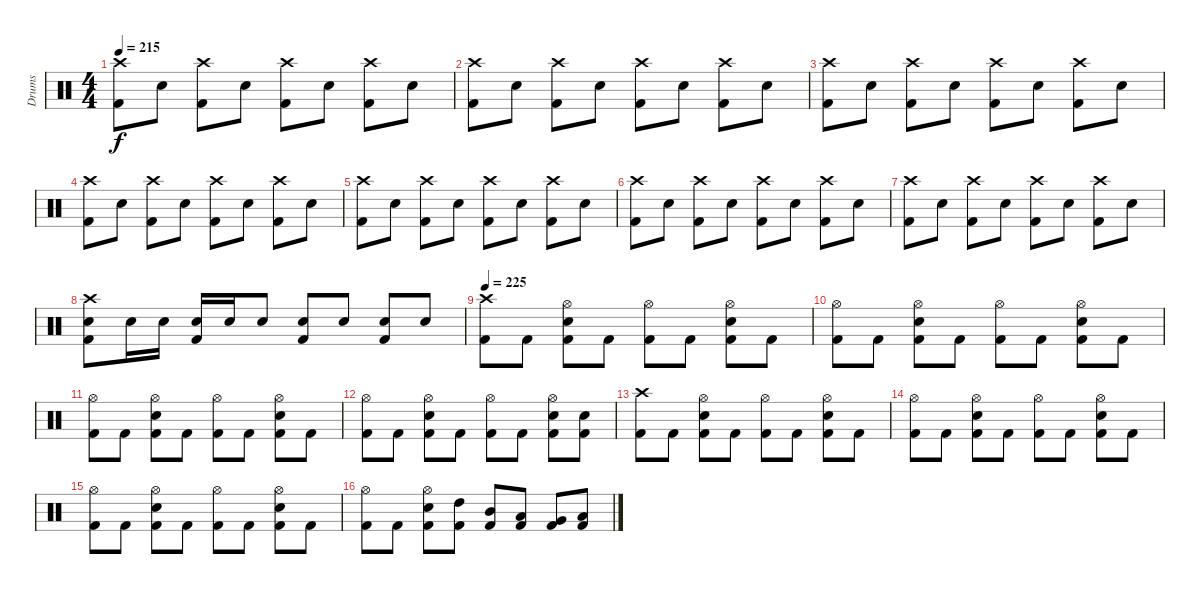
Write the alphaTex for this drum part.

\track ("Drums" "Drums") {instrument percussion}
\staff {score}
\articulation defaults
\ts (4 4)
\tempo 215
\clef neutral
\ks c
("Crash high (hit)" "Kick (hit) 2").8{dy f} "Electric Snare (hit)".8 ("Crash high (hit)" "Kick (hit) 2").8 "Electric Snare (hit)".8 ("Crash high (hit)" "Kick (hit) 2").8 "Electric Snare (hit)".8 ("Crash high (hit)" "Kick (hit) 2").8 "Electric Snare (hit)".8 |
("Crash high (hit)" "Kick (hit) 2").8 "Electric Snare (hit)".8 ("Crash high (hit)" "Kick (hit) 2").8 "Electric Snare (hit)".8 ("Crash high (hit)" "Kick (hit) 2").8 "Electric Snare (hit)".8 ("Crash high (hit)" "Kick (hit) 2").8 "Electric Snare (hit)".8 |
("Crash high (hit)" "Kick (hit) 2").8 "Electric Snare (hit)".8 ("Crash high (hit)" "Kick (hit) 2").8 "Electric Snare (hit)".8 ("Crash high (hit)" "Kick (hit) 2").8 "Electric Snare (hit)".8 ("Crash high (hit)" "Kick (hit) 2").8 "Electric Snare (hit)".8 |
("Crash high (hit)" "Kick (hit) 2").8 "Electric Snare (hit)".8 ("Crash high (hit)" "Kick (hit) 2").8 "Electric Snare (hit)".8 ("Crash high (hit)" "Kick (hit) 2").8 "Electric Snare (hit)".8 ("Crash high (hit)" "Kick (hit) 2").8 "Electric Snare (hit)".8 |
("Crash high (hit)" "Kick (hit) 2").8 "Electric Snare (hit)".8 ("Crash high (hit)" "Kick (hit) 2").8 "Electric Snare (hit)".8 ("Crash high (hit)" "Kick (hit) 2").8 "Electric Snare (hit)".8 ("Crash high (hit)" "Kick (hit) 2").8 "Electric Snare (hit)".8 |
("Crash high (hit)" "Kick (hit) 2").8 "Electric Snare (hit)".8 ("Crash high (hit)" "Kick (hit) 2").8 "Electric Snare (hit)".8 ("Crash high (hit)" "Kick (hit) 2").8 "Electric Snare (hit)".8 ("Crash high (hit)" "Kick (hit) 2").8 "Electric Snare (hit)".8 |
("Crash high (hit)" "Kick (hit) 2").8 "Electric Snare (hit)".8 ("Crash high (hit)" "Kick (hit) 2").8 "Electric Snare (hit)".8 ("Crash high (hit)" "Kick (hit) 2").8 "Electric Snare (hit)".8 ("Crash high (hit)" "Kick (hit) 2").8 "Electric Snare (hit)".8 |
("Crash high (hit)" "Electric Snare (hit)" "Kick (hit) 2").8 "Electric Snare (hit)".16 "Electric Snare (hit)".16 ("Electric Snare (hit)" "Kick (hit) 2").16 "Electric Snare (hit)".16 "Electric Snare (hit)".8 ("Electric Snare (hit)" "Kick (hit) 2").8 "Electric Snare (hit)".8 ("Electric Snare (hit)" "Kick (hit) 2").8 "Electric Snare (hit)".8 |
\tempo 225
("Crash high (hit)" "Kick (hit) 2").8 "Kick (hit) 2".8 ("Hi-Hat (open)" "Electric Snare (hit)" "Kick (hit) 2").8 "Kick (hit) 2".8 ("Hi-Hat (open)" "Kick (hit) 2").8 "Kick (hit) 2".8 ("Hi-Hat (open)" "Electric Snare (hit)" "Kick (hit) 2").8 "Kick (hit) 2".8 |
("Hi-Hat (open)" "Kick (hit) 2").8 "Kick (hit) 2".8 ("Hi-Hat (open)" "Electric Snare (hit)" "Kick (hit) 2").8 "Kick (hit) 2".8 ("Hi-Hat (open)" "Kick (hit) 2").8 "Kick (hit) 2".8 ("Hi-Hat (open)" "Electric Snare (hit)" "Kick (hit) 2").8 "Kick (hit) 2".8 |
("Hi-Hat (open)" "Kick (hit) 2").8 "Kick (hit) 2".8 ("Hi-Hat (open)" "Electric Snare (hit)" "Kick (hit) 2").8 "Kick (hit) 2".8 ("Hi-Hat (open)" "Kick (hit) 2").8 "Kick (hit) 2".8 ("Hi-Hat (open)" "Electric Snare (hit)" "Kick (hit) 2").8 "Kick (hit) 2".8 |
("Hi-Hat (open)" "Kick (hit) 2").8 "Kick (hit) 2".8 ("Hi-Hat (open)" "Electric Snare (hit)" "Kick (hit) 2").8 "Kick (hit) 2".8 ("Hi-Hat (open)" "Kick (hit) 2").8 "Kick (hit) 2".8 ("Hi-Hat (open)" "Electric Snare (hit)" "Kick (hit) 2").8 ("Electric Snare (hit)" "Kick (hit) 2").8 |
("Crash high (hit)" "Kick (hit) 2").8 "Kick (hit) 2".8 ("Hi-Hat (open)" "Electric Snare (hit)" "Kick (hit) 2").8 "Kick (hit) 2".8 ("Hi-Hat (open)" "Kick (hit) 2").8 "Kick (hit) 2".8 ("Hi-Hat (open)" "Electric Snare (hit)" "Kick (hit) 2").8 "Kick (hit) 2".8 |
("Hi-Hat (open)" "Kick (hit) 2").8 "Kick (hit) 2".8 ("Hi-Hat (open)" "Electric Snare (hit)" "Kick (hit) 2").8 "Kick (hit) 2".8 ("Hi-Hat (open)" "Kick (hit) 2").8 "Kick (hit) 2".8 ("Hi-Hat (open)" "Electric Snare (hit)" "Kick (hit) 2").8 "Kick (hit) 2".8 |
("Hi-Hat (open)" "Kick (hit) 2").8 "Kick (hit) 2".8 ("Hi-Hat (open)" "Electric Snare (hit)" "Kick (hit) 2").8 "Kick (hit) 2".8 ("Hi-Hat (open)" "Kick (hit) 2").8 "Kick (hit) 2".8 ("Hi-Hat (open)" "Electric Snare (hit)" "Kick (hit) 2").8 "Kick (hit) 2".8 |
("Hi-Hat (open)" "Kick (hit) 2").8 "Kick (hit) 2".8 ("Hi-Hat (open)" "Electric Snare (hit)" "Kick (hit) 2").8 ("High Tom (hit)" "Kick (hit) 2").8 ("Mid Tom (hit)" "Kick (hit) 2").8 ("Low Tom (hit)" "Kick (hit) 2").8 ("Very Low Tom (hit)" "Kick (hit) 2").8 ("Low Floor Tom (hit)" "Kick (hit) 2").8
